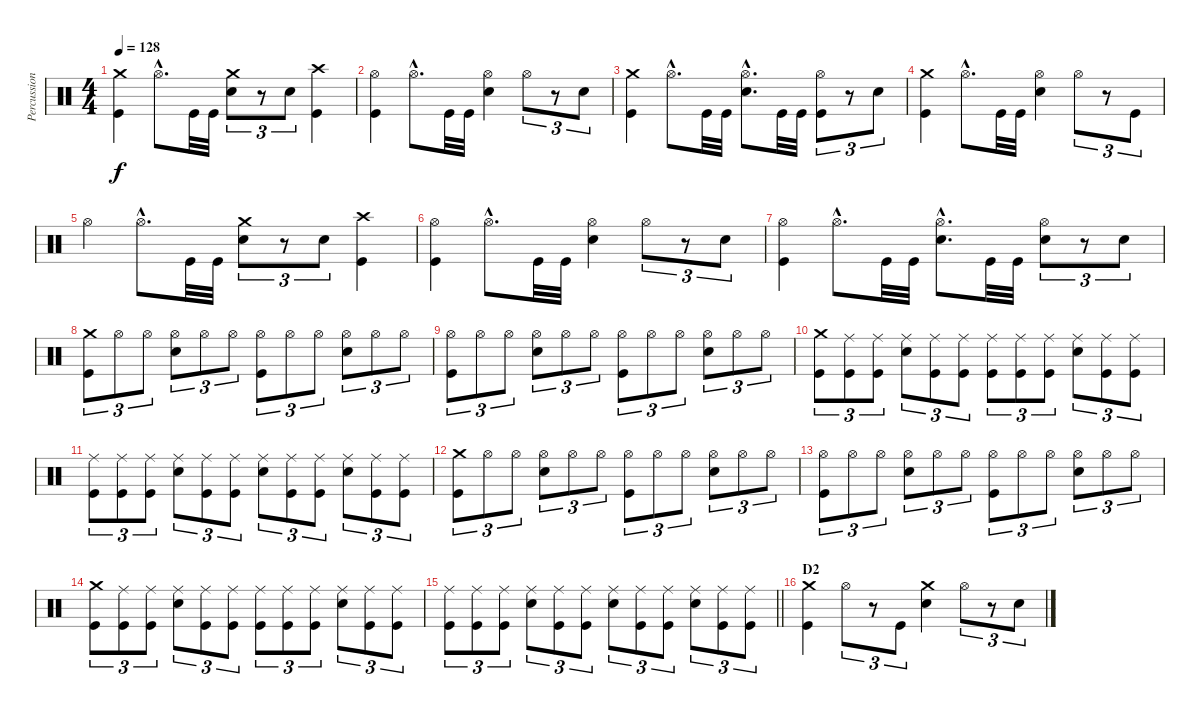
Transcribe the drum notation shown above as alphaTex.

\track ("Percussion" "Percussion") {instrument percussion}
\staff {score}
\articulation defaults
\ts (4 4)
\tempo 128
\clef neutral
\ks c
("Kick (hit)" "Crash medium (hit)").4{dy f} "Hi-Hat (open)"{hac}.8{d} "Kick (hit)".32 "Kick (hit)".32 ("Snare (hit) 2" "Crash medium (hit)").8{tu (3 2)} r.8{tu (3 2)} "Snare (hit) 2".8{tu (3 2)} ("Kick (hit)" "Crash high (hit)").4 |
("Kick (hit)" "Hi-Hat (open)").4 "Hi-Hat (open)"{hac}.8{d} "Kick (hit)".32 "Kick (hit)".32 ("Snare (hit) 2" "Hi-Hat (open)").4 "Hi-Hat (open)".8{tu (3 2)} r.8{tu (3 2)} "Snare (hit) 2".8{tu (3 2)} |
("Kick (hit)" "Crash medium (hit)").4 "Hi-Hat (open)"{hac}.8{d} "Kick (hit)".32 "Kick (hit)".32 ("Snare (hit) 2"{hac} "Hi-Hat (open)"{hac}).8{d} "Kick (hit)".32 "Kick (hit)".32 ("Kick (hit)" "Hi-Hat (open)").8{tu (3 2)} r.8{tu (3 2)} "Snare (hit) 2".8{tu (3 2)} |
("Kick (hit)" "Crash medium (hit)").4 "Hi-Hat (open)"{hac}.8{d} "Kick (hit)".32 "Kick (hit)".32 ("Snare (hit) 2" "Hi-Hat (open)").4 "Hi-Hat (open)".8{tu (3 2)} r.8{tu (3 2)} "Kick (hit)".8{tu (3 2)} |
"Hi-Hat (open)".4 "Hi-Hat (open)"{hac}.8{d} "Kick (hit)".32 "Kick (hit)".32 ("Snare (hit) 2" "Crash medium (hit)").8{tu (3 2)} r.8{tu (3 2)} "Snare (hit) 2".8{tu (3 2)} ("Kick (hit)" "Crash high (hit)").4 |
("Kick (hit)" "Hi-Hat (open)").4 "Hi-Hat (open)"{hac}.8{d} "Kick (hit)".32 "Kick (hit)".32 ("Snare (hit) 2" "Hi-Hat (open)").4 "Hi-Hat (open)".8{tu (3 2)} r.8{tu (3 2)} "Snare (hit) 2".8{tu (3 2)} |
("Kick (hit)" "Hi-Hat (open)").4 "Hi-Hat (open)"{hac}.8{d} "Kick (hit)".32 "Kick (hit)".32 ("Snare (hit) 2"{hac} "Hi-Hat (open)"{hac}).8{d} "Kick (hit)".32 "Kick (hit)".32 ("Snare (hit) 2" "Hi-Hat (open)").8{tu (3 2)} r.8{tu (3 2)} "Snare (hit) 2".8{tu (3 2)} |
("Kick (hit)" "Crash medium (hit)").8{tu (3 2)} "Hi-Hat (open)".8{tu (3 2)} "Hi-Hat (open)".8{tu (3 2)} ("Snare (hit) 2" "Hi-Hat (open)").8{tu (3 2)} "Hi-Hat (open)".8{tu (3 2)} "Hi-Hat (open)".8{tu (3 2)} ("Kick (hit)" "Hi-Hat (open)").8{tu (3 2)} "Hi-Hat (open)".8{tu (3 2)} "Hi-Hat (open)".8{tu (3 2)} ("Snare (hit) 2" "Hi-Hat (open)").8{tu (3 2)} "Hi-Hat (open)".8{tu (3 2)} "Hi-Hat (open)".8{tu (3 2)} |
("Kick (hit)" "Hi-Hat (open)").8{tu (3 2)} "Hi-Hat (open)".8{tu (3 2)} "Hi-Hat (open)".8{tu (3 2)} ("Snare (hit) 2" "Hi-Hat (open)").8{tu (3 2)} "Hi-Hat (open)".8{tu (3 2)} "Hi-Hat (open)".8{tu (3 2)} ("Kick (hit)" "Hi-Hat (open)").8{tu (3 2)} "Hi-Hat (open)".8{tu (3 2)} "Hi-Hat (open)".8{tu (3 2)} ("Snare (hit) 2" "Hi-Hat (open)").8{tu (3 2)} "Hi-Hat (open)".8{tu (3 2)} "Hi-Hat (open)".8{tu (3 2)} |
("Kick (hit)" "Crash medium (hit)").8{tu (3 2)} ("Kick (hit)" "Ride (middle)").8{tu (3 2)} ("Kick (hit)" "Ride (middle)").8{tu (3 2)} ("Snare (hit) 2" "Ride (middle)").8{tu (3 2)} ("Kick (hit)" "Ride (middle)").8{tu (3 2)} ("Kick (hit)" "Ride (middle)").8{tu (3 2)} ("Kick (hit)" "Ride (middle)").8{tu (3 2)} ("Kick (hit)" "Ride (middle)").8{tu (3 2)} ("Kick (hit)" "Ride (middle)").8{tu (3 2)} ("Snare (hit) 2" "Ride (middle)").8{tu (3 2)} ("Kick (hit)" "Ride (middle)").8{tu (3 2)} ("Kick (hit)" "Ride (middle)").8{tu (3 2)} |
("Kick (hit)" "Ride (middle)").8{tu (3 2)} ("Kick (hit)" "Ride (middle)").8{tu (3 2)} ("Kick (hit)" "Ride (middle)").8{tu (3 2)} ("Snare (hit) 2" "Ride (middle)").8{tu (3 2)} ("Kick (hit)" "Ride (middle)").8{tu (3 2)} ("Kick (hit)" "Ride (middle)").8{tu (3 2)} ("Snare (hit) 2" "Ride (middle)").8{tu (3 2)} ("Kick (hit)" "Ride (middle)").8{tu (3 2)} ("Kick (hit)" "Ride (middle)").8{tu (3 2)} ("Snare (hit) 2" "Ride (middle)").8{tu (3 2)} ("Kick (hit)" "Ride (middle)").8{tu (3 2)} ("Kick (hit)" "Ride (middle)").8{tu (3 2)} |
("Kick (hit)" "Crash medium (hit)").8{tu (3 2)} "Hi-Hat (open)".8{tu (3 2)} "Hi-Hat (open)".8{tu (3 2)} ("Snare (hit) 2" "Hi-Hat (open)").8{tu (3 2)} "Hi-Hat (open)".8{tu (3 2)} "Hi-Hat (open)".8{tu (3 2)} ("Kick (hit)" "Hi-Hat (open)").8{tu (3 2)} "Hi-Hat (open)".8{tu (3 2)} "Hi-Hat (open)".8{tu (3 2)} ("Snare (hit) 2" "Hi-Hat (open)").8{tu (3 2)} "Hi-Hat (open)".8{tu (3 2)} "Hi-Hat (open)".8{tu (3 2)} |
("Kick (hit)" "Hi-Hat (open)").8{tu (3 2)} "Hi-Hat (open)".8{tu (3 2)} "Hi-Hat (open)".8{tu (3 2)} ("Snare (hit) 2" "Hi-Hat (open)").8{tu (3 2)} "Hi-Hat (open)".8{tu (3 2)} "Hi-Hat (open)".8{tu (3 2)} ("Kick (hit)" "Hi-Hat (open)").8{tu (3 2)} "Hi-Hat (open)".8{tu (3 2)} "Hi-Hat (open)".8{tu (3 2)} ("Snare (hit) 2" "Hi-Hat (open)").8{tu (3 2)} "Hi-Hat (open)".8{tu (3 2)} "Hi-Hat (open)".8{tu (3 2)} |
("Kick (hit)" "Crash medium (hit)").8{tu (3 2)} ("Kick (hit)" "Ride (middle)").8{tu (3 2)} ("Kick (hit)" "Ride (middle)").8{tu (3 2)} ("Snare (hit) 2" "Ride (middle)").8{tu (3 2)} ("Kick (hit)" "Ride (middle)").8{tu (3 2)} ("Kick (hit)" "Ride (middle)").8{tu (3 2)} ("Kick (hit)" "Ride (middle)").8{tu (3 2)} ("Kick (hit)" "Ride (middle)").8{tu (3 2)} ("Kick (hit)" "Ride (middle)").8{tu (3 2)} ("Snare (hit) 2" "Ride (middle)").8{tu (3 2)} ("Kick (hit)" "Ride (middle)").8{tu (3 2)} ("Kick (hit)" "Ride (middle)").8{tu (3 2)} |
\barLineRight lightlight
("Kick (hit)" "Ride (middle)").8{tu (3 2)} ("Kick (hit)" "Ride (middle)").8{tu (3 2)} ("Kick (hit)" "Ride (middle)").8{tu (3 2)} ("Snare (hit) 2" "Ride (middle)").8{tu (3 2)} ("Kick (hit)" "Ride (middle)").8{tu (3 2)} ("Kick (hit)" "Ride (middle)").8{tu (3 2)} ("Snare (hit) 2" "Ride (middle)").8{tu (3 2)} ("Kick (hit)" "Ride (middle)").8{tu (3 2)} ("Kick (hit)" "Ride (middle)").8{tu (3 2)} ("Snare (hit) 2" "Ride (middle)").8{tu (3 2)} ("Kick (hit)" "Ride (middle)").8{tu (3 2)} ("Kick (hit)" "Ride (middle)").8{tu (3 2)} |
\section ("" "D2")
("Kick (hit)" "Crash medium (hit)").4 "Hi-Hat (open)".8{tu (3 2)} r.8{tu (3 2)} "Kick (hit)".8{tu (3 2)} ("Snare (hit) 2" "Crash medium (hit)").4 "Hi-Hat (open)".8{tu (3 2)} r.8{tu (3 2)} "Snare (hit) 2".8{tu (3 2)}
